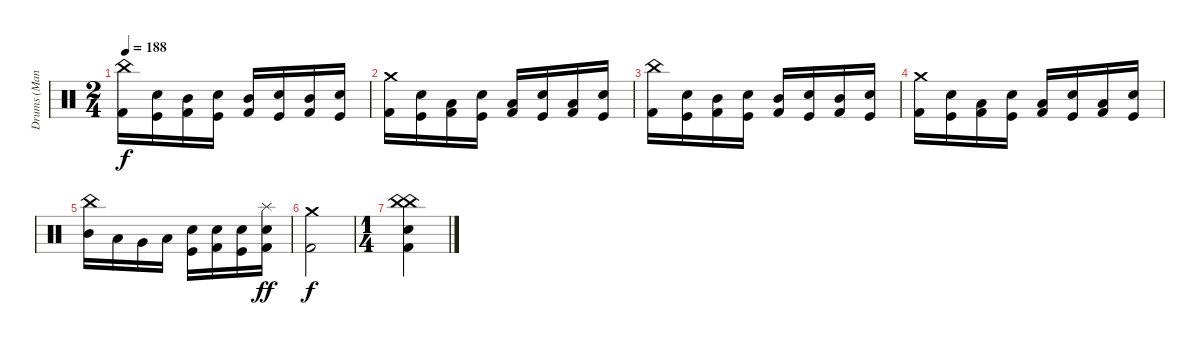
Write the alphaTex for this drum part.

\track ("Drums (Manheim)" "Drums (Man") {instrument percussion}
\staff {score}
\articulation defaults
\ts (2 4)
\tempo 188
\clef neutral
\ks c
("China (hit)" "Kick (hit) 2").16{dy f} ("Electric Snare (hit)" "Kick (hit)").16 ("Mid Tom (hit)" "Kick (hit) 2").16 ("Electric Snare (hit)" "Kick (hit)").16 ("Mid Tom (hit)" "Kick (hit) 2").16 ("Electric Snare (hit)" "Kick (hit)").16 ("Mid Tom (hit)" "Kick (hit) 2").16 ("Electric Snare (hit)" "Kick (hit)").16 |
("Crash medium (hit)" "Kick (hit) 2").16 ("Electric Snare (hit)" "Kick (hit)").16 ("Low Tom (hit)" "Kick (hit) 2").16 ("Electric Snare (hit)" "Kick (hit)").16 ("Low Tom (hit)" "Kick (hit) 2").16 ("Electric Snare (hit)" "Kick (hit)").16 ("Low Tom (hit)" "Kick (hit) 2").16 ("Electric Snare (hit)" "Kick (hit)").16 |
("China (hit)" "Kick (hit) 2").16 ("Electric Snare (hit)" "Kick (hit)").16 ("Mid Tom (hit)" "Kick (hit) 2").16 ("Electric Snare (hit)" "Kick (hit)").16 ("Mid Tom (hit)" "Kick (hit) 2").16 ("Electric Snare (hit)" "Kick (hit)").16 ("Mid Tom (hit)" "Kick (hit) 2").16 ("Electric Snare (hit)" "Kick (hit)").16 |
("Crash medium (hit)" "Kick (hit) 2").16 ("Electric Snare (hit)" "Kick (hit)").16 ("Low Tom (hit)" "Kick (hit) 2").16 ("Electric Snare (hit)" "Kick (hit)").16 ("Low Tom (hit)" "Kick (hit) 2").16 ("Electric Snare (hit)" "Kick (hit)").16 ("Low Tom (hit)" "Kick (hit) 2").16 ("Electric Snare (hit)" "Kick (hit)").16 |
("China (hit)" "Mid Tom (hit)").16 "Low Tom (hit)".16 "Very Low Tom (hit)".16 "Low Floor Tom (hit)".16 ("Electric Snare (hit)" "Kick (hit)").16 ("Electric Snare (hit)" "Kick (hit) 2").16 ("Electric Snare (hit)" "Kick (hit)").16 ("Splash (hit)" "Electric Snare (hit)" "Kick (hit) 2").16{dy ff} |
("Crash medium (hit)" "Kick (hit) 2").2{dy f} |
\ts (1 4)
("China (hit)" "China (hit)" "Electric Snare (hit)" "Kick (hit) 2").4
